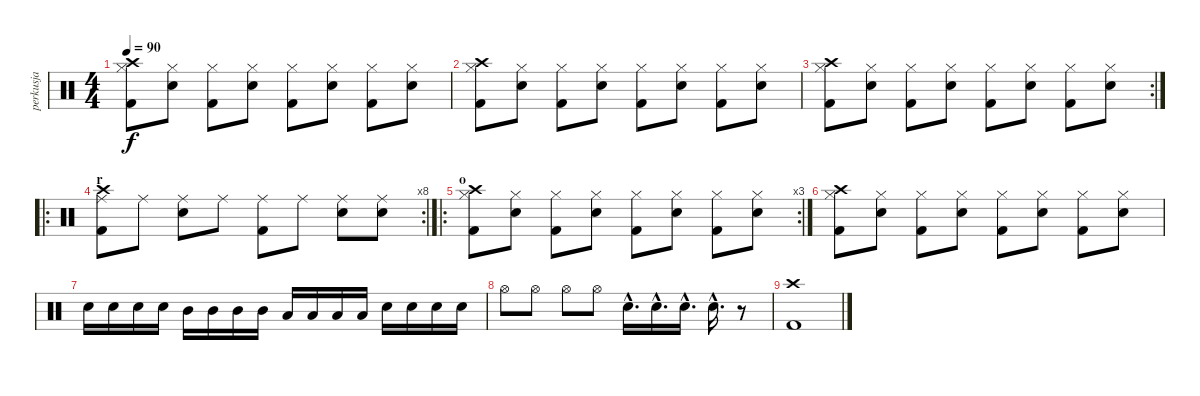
\track ("perkusja" "perkusja") {instrument percussion}
\staff {score}
\articulation defaults
\ts (4 4)
\tempo 90
\clef neutral
\ks c
("Hi-Hat (closed)" "Kick (hit) 2" "Crash high (hit)").8{dy f} ("Hi-Hat (closed)" "Electric Snare (hit)").8 ("Hi-Hat (closed)" "Kick (hit) 2").8 ("Hi-Hat (closed)" "Electric Snare (hit)").8 ("Hi-Hat (closed)" "Kick (hit) 2").8 ("Hi-Hat (closed)" "Electric Snare (hit)").8 ("Hi-Hat (closed)" "Kick (hit) 2").8 ("Hi-Hat (closed)" "Electric Snare (hit)").8 |
("Hi-Hat (closed)" "Kick (hit) 2" "Crash high (hit)").8 ("Hi-Hat (closed)" "Electric Snare (hit)").8 ("Hi-Hat (closed)" "Kick (hit) 2").8 ("Hi-Hat (closed)" "Electric Snare (hit)").8 ("Hi-Hat (closed)" "Kick (hit) 2").8 ("Hi-Hat (closed)" "Electric Snare (hit)").8 ("Hi-Hat (closed)" "Kick (hit) 2").8 ("Hi-Hat (closed)" "Electric Snare (hit)").8 |
\rc 2
("Hi-Hat (closed)" "Kick (hit) 2" "Crash high (hit)").8 ("Hi-Hat (closed)" "Electric Snare (hit)").8 ("Hi-Hat (closed)" "Kick (hit) 2").8 ("Hi-Hat (closed)" "Electric Snare (hit)").8 ("Hi-Hat (closed)" "Kick (hit) 2").8 ("Hi-Hat (closed)" "Electric Snare (hit)").8 ("Hi-Hat (closed)" "Kick (hit) 2").8 ("Hi-Hat (closed)" "Electric Snare (hit)").8 |
\ro
\rc 8
\section ("" "r")
("Ride (middle)" "Kick (hit) 2" "Crash high (hit)").8 "Ride (middle)".8 ("Ride (middle)" "Electric Snare (hit)").8 "Ride (middle)".8 ("Ride (middle)" "Kick (hit) 2").8 "Ride (middle)".8 ("Ride (middle)" "Electric Snare (hit)").8 ("Ride (middle)" "Electric Snare (hit)").8 |
\ro
\rc 3
\section ("" "o")
("Hi-Hat (closed)" "Kick (hit) 2" "Crash high (hit)").8 ("Hi-Hat (closed)" "Electric Snare (hit)").8 ("Hi-Hat (closed)" "Kick (hit) 2").8 ("Hi-Hat (closed)" "Electric Snare (hit)").8 ("Hi-Hat (closed)" "Kick (hit) 2").8 ("Hi-Hat (closed)" "Electric Snare (hit)").8 ("Hi-Hat (closed)" "Kick (hit) 2").8 ("Hi-Hat (closed)" "Electric Snare (hit)").8 |
("Hi-Hat (closed)" "Kick (hit) 2" "Crash high (hit)").8 ("Hi-Hat (closed)" "Electric Snare (hit)").8 ("Hi-Hat (closed)" "Kick (hit) 2").8 ("Hi-Hat (closed)" "Electric Snare (hit)").8 ("Hi-Hat (closed)" "Kick (hit) 2").8 ("Hi-Hat (closed)" "Electric Snare (hit)").8 ("Hi-Hat (closed)" "Kick (hit) 2").8 ("Hi-Hat (closed)" "Electric Snare (hit)").8 |
"Electric Snare (hit)".16 "Electric Snare (hit)".16 "Electric Snare (hit)".16 "Electric Snare (hit)".16 "Mid Tom (hit)".16 "Mid Tom (hit)".16 "Mid Tom (hit)".16 "Mid Tom (hit)".16 "Low Tom (hit)".16 "Low Tom (hit)".16 "Low Tom (hit)".16 "Low Tom (hit)".16 "Electric Snare (hit)".16 "Electric Snare (hit)".16 "Electric Snare (hit)".16 "Electric Snare (hit)".16 |
"Hi-Hat (open)".8 "Hi-Hat (open)".8 "Hi-Hat (open)".8 "Hi-Hat (open)".8 "Electric Snare (hit)"{hac}.16{d} "Electric Snare (hit)"{hac}.16{d} "Electric Snare (hit)"{hac}.16{d} "Electric Snare (hit)"{hac}.16{d} r.8 |
("Crash high (hit)" "Kick (hit) 2").1
